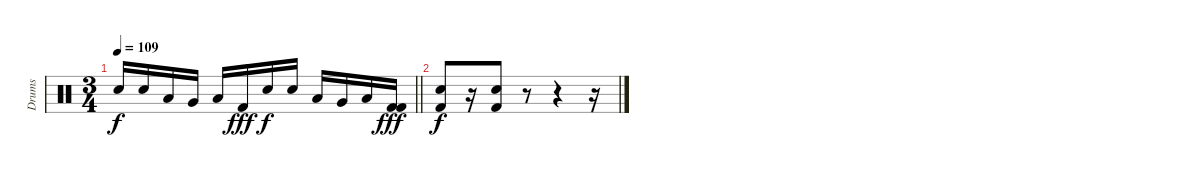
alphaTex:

\track ("Drums" "Drums") {instrument percussion}
\staff {score}
\articulation defaults
\ts (3 4)
\tempo 109
\clef neutral
\barLineRight lightlight
\ks c "Electric Snare (hit)".16{dy f} "Electric Snare (hit)".16 "Low Tom (hit)".16 "Very Low Tom (hit)".16 "Low Floor Tom (hit)".16 "Kick (hit) 2".16{dy fff} "Electric Snare (hit)".16{dy f} "Electric Snare (hit)".16 "Low Tom (hit)".16 "Very Low Tom (hit)".16 "Low Floor Tom (hit)".16
("Kick (hit) 2" "Kick (hit) 2").16{dy fff} |
("Electric Snare (hit)" "Kick (hit) 2").8{dy f} r.16 ("Electric Snare (hit)" "Kick (hit) 2").8 r.8 r.4 r.16
